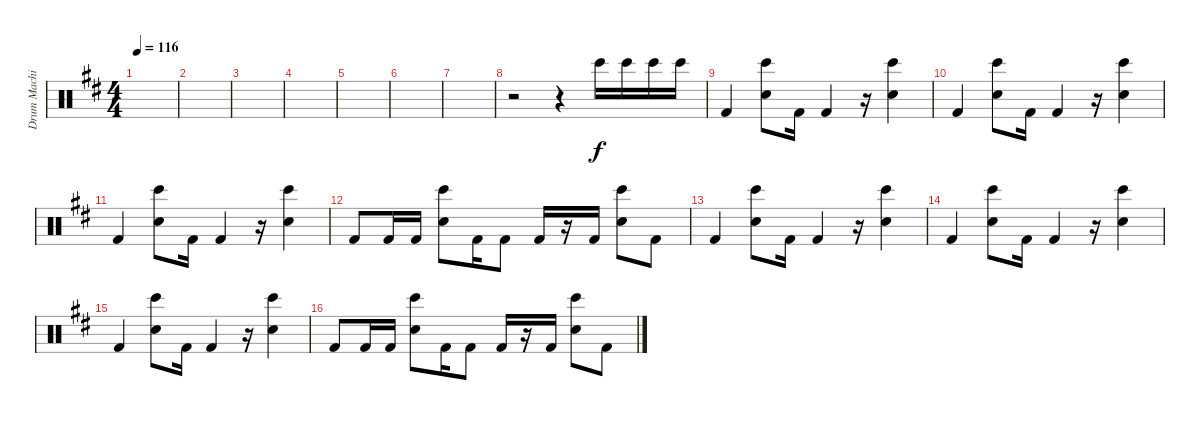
\track ("Drum Machine" "Drum Machi") {instrument percussion}
\staff {score}
\articulation defaults
\ts (4 4)
\tempo 116
\clef neutral
\ks bminor
|
|
|
|
|
|
|
r.2 r.4 "Bongo High (hit)".16 "Bongo High (hit)".16 "Bongo High (hit)".16 "Bongo High (hit)".16 |
"Kick (hit) 2".4 ("Bongo High (hit)" "Electric Snare (hit)").8 "Kick (hit) 2".16 "Kick (hit) 2".4 r.16 ("Bongo High (hit)" "Electric Snare (hit)").4 |
"Kick (hit) 2".4 ("Bongo High (hit)" "Electric Snare (hit)").8 "Kick (hit) 2".16 "Kick (hit) 2".4 r.16 ("Bongo High (hit)" "Electric Snare (hit)").4 |
"Kick (hit) 2".4 ("Bongo High (hit)" "Electric Snare (hit)").8 "Kick (hit) 2".16 "Kick (hit) 2".4 r.16 ("Bongo High (hit)" "Electric Snare (hit)").4 |
"Kick (hit) 2".8 "Kick (hit) 2".16 "Kick (hit) 2".16 ("Bongo High (hit)" "Electric Snare (hit)").8 "Kick (hit) 2".16 "Kick (hit) 2".8 "Kick (hit) 2".16 r.16 "Kick (hit) 2".16 ("Bongo High (hit)" "Electric Snare (hit)").8 "Kick (hit) 2".8 |
"Kick (hit) 2".4 ("Bongo High (hit)" "Electric Snare (hit)").8 "Kick (hit) 2".16 "Kick (hit) 2".4 r.16 ("Bongo High (hit)" "Electric Snare (hit)").4 |
"Kick (hit) 2".4 ("Bongo High (hit)" "Electric Snare (hit)").8 "Kick (hit) 2".16 "Kick (hit) 2".4 r.16 ("Bongo High (hit)" "Electric Snare (hit)").4 |
"Kick (hit) 2".4 ("Bongo High (hit)" "Electric Snare (hit)").8 "Kick (hit) 2".16 "Kick (hit) 2".4 r.16 ("Bongo High (hit)" "Electric Snare (hit)").4 |
"Kick (hit) 2".8 "Kick (hit) 2".16 "Kick (hit) 2".16 ("Bongo High (hit)" "Electric Snare (hit)").8 "Kick (hit) 2".16 "Kick (hit) 2".8 "Kick (hit) 2".16 r.16 "Kick (hit) 2".16 ("Bongo High (hit)" "Electric Snare (hit)").8 "Kick (hit) 2".8
